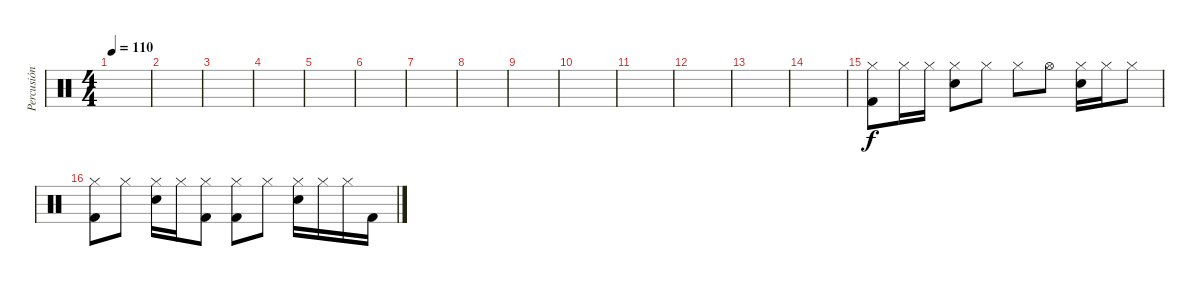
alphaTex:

\track ("Percusión" "Percusión") {instrument percussion}
\staff {score}
\articulation defaults
\ts (4 4)
\tempo 110
\clef neutral
\ks c
|
|
|
|
|
|
|
|
|
|
|
|
|
|
("Hi-Hat (closed)" "Kick (hit) 2").8 "Hi-Hat (closed)".16 "Hi-Hat (closed)".16 ("Hi-Hat (closed)" "Snare (hit) 2").8 "Hi-Hat (closed)".8 "Hi-Hat (closed)".8 "Hi-Hat (open)".8 ("Hi-Hat (closed)" "Snare (hit) 2").16 "Hi-Hat (closed)".16 "Hi-Hat (closed)".8 |
("Hi-Hat (closed)" "Kick (hit) 2").8 "Hi-Hat (closed)".8 ("Hi-Hat (closed)" "Snare (hit) 2").16 "Hi-Hat (closed)".16 ("Hi-Hat (closed)" "Kick (hit) 2").8 ("Hi-Hat (closed)" "Kick (hit) 2").8 "Hi-Hat (closed)".8 ("Hi-Hat (closed)" "Snare (hit) 2").16 "Hi-Hat (closed)".16 "Hi-Hat (closed)".16 "Kick (hit) 2".16
